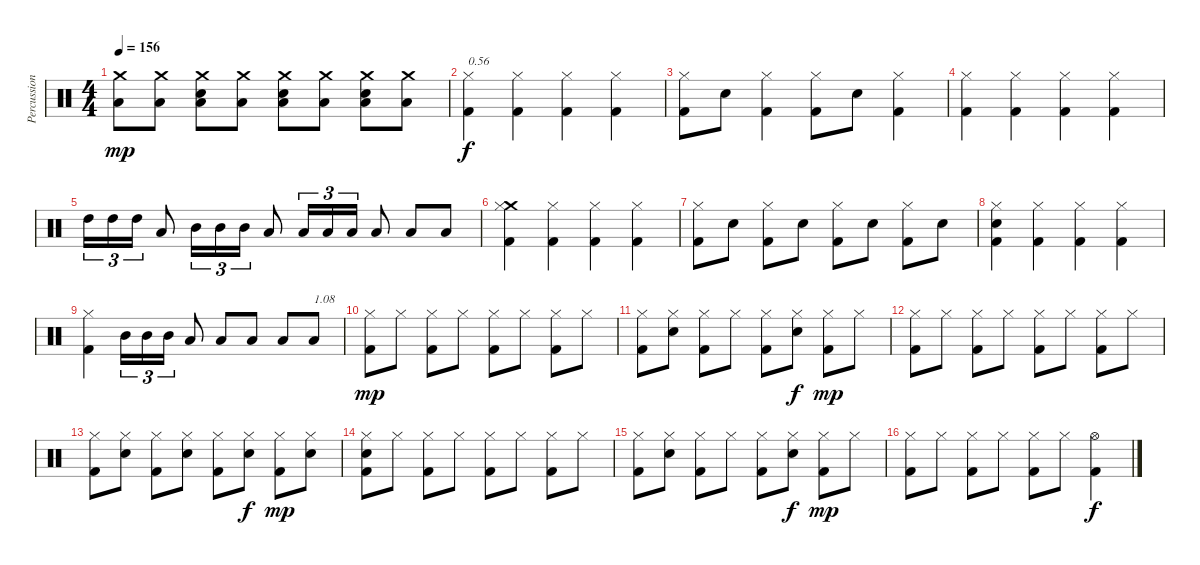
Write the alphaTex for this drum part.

\track ("Percussions" "Percussion") {instrument percussion}
\staff {score}
\articulation defaults
\ts (4 4)
\tempo 156
\clef neutral
\ks c
("Low Floor Tom (hit)" "Crash medium (hit)").8{dy mp} ("Low Floor Tom (hit)" "Crash medium (hit)").8 ("Low Floor Tom (hit)" "Electric Snare (hit)" "Crash medium (hit)").8 ("Low Floor Tom (hit)" "Crash medium (hit)").8 ("Low Floor Tom (hit)" "Electric Snare (hit)" "Crash medium (hit)").8 ("Low Floor Tom (hit)" "Crash medium (hit)").8 ("Low Floor Tom (hit)" "Electric Snare (hit)" "Crash medium (hit)").8 ("Low Floor Tom (hit)" "Crash medium (hit)").8 |
("Kick (hit) 2" "Hi-Hat (closed)").4{txt "0.56" dy f} ("Kick (hit) 2" "Hi-Hat (closed)").4 ("Kick (hit) 2" "Hi-Hat (closed)").4 ("Kick (hit) 2" "Hi-Hat (closed)").4 |
("Kick (hit) 2" "Hi-Hat (closed)").8 "Electric Snare (hit)".8 ("Kick (hit) 2" "Hi-Hat (closed)").4 ("Kick (hit) 2" "Hi-Hat (closed)").8 "Electric Snare (hit)".8 ("Kick (hit) 2" "Hi-Hat (closed)").4 |
("Kick (hit) 2" "Hi-Hat (closed)").4 ("Kick (hit) 2" "Hi-Hat (closed)").4 ("Kick (hit) 2" "Hi-Hat (closed)").4 ("Kick (hit) 2" "Hi-Hat (closed)").4 |
"High Tom (hit)".16{tu (3 2)} "High Tom (hit)".16{tu (3 2)} "High Tom (hit)".16{tu (3 2)} "Low Tom (hit)".8 "Mid Tom (hit)".16{tu (3 2)} "Mid Tom (hit)".16{tu (3 2)} "Mid Tom (hit)".16{tu (3 2)} "Low Tom (hit)".8 "Low Tom (hit)".16{tu (3 2)} "Low Tom (hit)".16{tu (3 2)} "Low Tom (hit)".16{tu (3 2)} "Low Tom (hit)".8 "Low Tom (hit)".8 "Low Tom (hit)".8 |
("Kick (hit) 2" "Crash medium (hit)" "Hi-Hat (closed)").4 ("Kick (hit) 2" "Hi-Hat (closed)").4 ("Kick (hit) 2" "Hi-Hat (closed)").4 ("Kick (hit) 2" "Hi-Hat (closed)").4 |
("Kick (hit) 2" "Hi-Hat (closed)").8 "Electric Snare (hit)".8 ("Kick (hit) 2" "Hi-Hat (closed)").8 "Electric Snare (hit)".8 ("Kick (hit) 2" "Hi-Hat (closed)").8 "Electric Snare (hit)".8 ("Kick (hit) 2" "Hi-Hat (closed)").8 "Electric Snare (hit)".8 |
("Kick (hit) 2" "Electric Snare (hit)" "Hi-Hat (closed)").4 ("Kick (hit) 2" "Hi-Hat (closed)").4 ("Kick (hit) 2" "Hi-Hat (closed)").4 ("Kick (hit) 2" "Hi-Hat (closed)").4 |
("Kick (hit) 2" "Hi-Hat (closed)").4 "Mid Tom (hit)".16{tu (3 2)} "Mid Tom (hit)".16{tu (3 2)} "Mid Tom (hit)".16{tu (3 2)} "Low Tom (hit)".8 "Low Tom (hit)".8 "Low Tom (hit)".8 "Low Tom (hit)".8 "Low Tom (hit)".8{txt "1.08"} |
("Kick (hit) 2" "Hi-Hat (closed)").8{dy mp} "Hi-Hat (closed)".8 ("Kick (hit) 2" "Hi-Hat (closed)").8 "Hi-Hat (closed)".8 ("Kick (hit) 2" "Hi-Hat (closed)").8 "Hi-Hat (closed)".8 ("Kick (hit) 2" "Hi-Hat (closed)").8 "Hi-Hat (closed)".8 |
("Kick (hit) 2" "Hi-Hat (closed)").8 ("Electric Snare (hit)" "Hi-Hat (closed)").8 ("Kick (hit) 2" "Hi-Hat (closed)").8 "Hi-Hat (closed)".8 ("Kick (hit) 2" "Hi-Hat (closed)").8 ("Electric Snare (hit)" "Hi-Hat (closed)").8{dy f} ("Kick (hit) 2" "Hi-Hat (closed)").8{dy mp} "Hi-Hat (closed)".8 |
("Kick (hit) 2" "Hi-Hat (closed)").8 "Hi-Hat (closed)".8 ("Kick (hit) 2" "Hi-Hat (closed)").8 "Hi-Hat (closed)".8 ("Kick (hit) 2" "Hi-Hat (closed)").8 "Hi-Hat (closed)".8 ("Kick (hit) 2" "Hi-Hat (closed)").8 "Hi-Hat (closed)".8 |
("Kick (hit) 2" "Hi-Hat (closed)").8 ("Electric Snare (hit)" "Hi-Hat (closed)").8 ("Kick (hit) 2" "Hi-Hat (closed)").8 ("Electric Snare (hit)" "Hi-Hat (closed)").8 ("Kick (hit) 2" "Hi-Hat (closed)").8 ("Electric Snare (hit)" "Hi-Hat (closed)").8{dy f} ("Kick (hit) 2" "Hi-Hat (closed)").8{dy mp} ("Electric Snare (hit)" "Hi-Hat (closed)").8 |
("Kick (hit) 2" "Electric Snare (hit)" "Hi-Hat (closed)").8 "Hi-Hat (closed)".8 ("Kick (hit) 2" "Hi-Hat (closed)").8 "Hi-Hat (closed)".8 ("Kick (hit) 2" "Hi-Hat (closed)").8 "Hi-Hat (closed)".8 ("Kick (hit) 2" "Hi-Hat (closed)").8 "Hi-Hat (closed)".8 |
("Kick (hit) 2" "Hi-Hat (closed)").8 ("Electric Snare (hit)" "Hi-Hat (closed)").8 ("Kick (hit) 2" "Hi-Hat (closed)").8 "Hi-Hat (closed)".8 ("Kick (hit) 2" "Hi-Hat (closed)").8 ("Electric Snare (hit)" "Hi-Hat (closed)").8{dy f} ("Kick (hit) 2" "Hi-Hat (closed)").8{dy mp} "Hi-Hat (closed)".8 |
("Kick (hit) 2" "Hi-Hat (closed)").8 "Hi-Hat (closed)".8 ("Kick (hit) 2" "Hi-Hat (closed)").8 "Hi-Hat (closed)".8 ("Kick (hit) 2" "Hi-Hat (closed)").8 "Hi-Hat (closed)".8 ("Kick (hit) 2" "Hi-Hat (open)").4{dy f}
